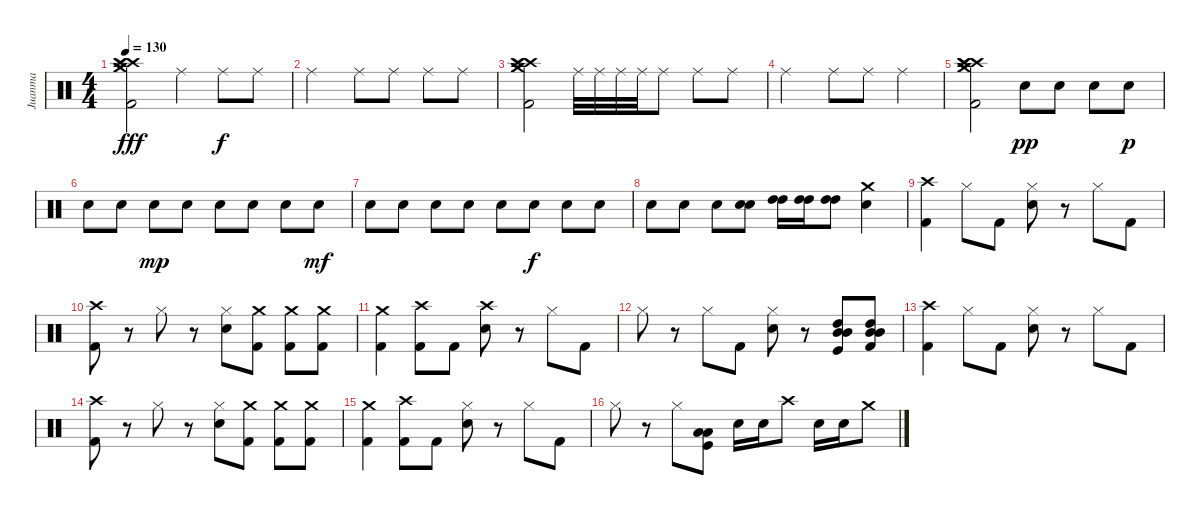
\track ("Juanma" "Juanma") {instrument percussion}
\staff {score}
\articulation defaults
\ts (4 4)
\tempo 130
\clef neutral
\ks c
("Crash high (hit)" "Crash medium (hit)" "Crash high (hit)" "Splash (hit)" "Crash medium (hit)" "Kick (hit) 2").2{dy fff} "Ride (middle)".4 "Ride (middle)".8{dy f} "Ride (middle)".8 |
"Ride (middle)".2 "Ride (middle)".8 "Ride (middle)".8 "Ride (middle)".8 "Ride (middle)".8 |
("Crash high (hit)" "Crash medium (hit)" "Crash medium (hit)" "Crash high (hit)" "Splash (hit)" "Kick (hit) 2").2 "Ride (middle)".32 "Ride (middle)".32 "Ride (middle)".32 "Ride (middle)".32 "Ride (middle)".8 "Ride (middle)".8 "Ride (middle)".8 |
"Ride (middle)".2 "Ride (middle)".8 "Ride (middle)".8 "Ride (middle)".4 |
("Crash high (hit)" "Crash medium (hit)" "Crash high (hit)" "Crash medium (hit)" "Crash high (hit)" "Kick (hit) 2").2 "Electric Snare (hit)".8{dy pp} "Electric Snare (hit)".8 "Electric Snare (hit)".8 "Electric Snare (hit)".8{dy p} |
"Electric Snare (hit)".8 "Electric Snare (hit)".8 "Electric Snare (hit)".8{dy mp} "Electric Snare (hit)".8 "Electric Snare (hit)".8 "Electric Snare (hit)".8 "Electric Snare (hit)".8 "Electric Snare (hit)".8{dy mf} |
"Electric Snare (hit)".8 "Electric Snare (hit)".8 "Electric Snare (hit)".8 "Electric Snare (hit)".8 "Electric Snare (hit)".8 "Electric Snare (hit)".8{dy f} "Electric Snare (hit)".8 "Electric Snare (hit)".8 |
"Electric Snare (hit)".8 "Electric Snare (hit)".8 "Electric Snare (hit)".8 ("Electric Snare (hit)" "Electric Snare (hit)").8 ("High Tom (hit)" "High Tom (hit)").16 ("High Tom (hit)" "High Tom (hit)").16 ("High Tom (hit)" "High Tom (hit)").8 ("Crash medium (hit)" "Electric Snare (hit)").4 |
("Crash high (hit)" "Kick (hit) 2").4 "Hi-Hat (closed)".8 "Kick (hit) 2".8 ("Hi-Hat (closed)" "Electric Snare (hit)").8 r.8 "Hi-Hat (closed)".8 "Kick (hit) 2".8 |
("Crash high (hit)" "Kick (hit) 2").8 r.8 "Hi-Hat (closed)".8 r.8 ("Hi-Hat (closed)" "Electric Snare (hit)").8 ("Crash medium (hit)" "Kick (hit) 2").8 ("Crash medium (hit)" "Kick (hit) 2").8 ("Crash medium (hit)" "Kick (hit) 2").8 |
("Crash medium (hit)" "Kick (hit) 2").4 ("Crash high (hit)" "Kick (hit) 2").8 "Kick (hit) 2".8 ("Crash high (hit)" "Electric Snare (hit)").8 r.8 "Hi-Hat (closed)".8 "Kick (hit) 2".8 |
"Hi-Hat (closed)".8 r.8 "Hi-Hat (closed)".8 "Kick (hit) 2".8 ("Hi-Hat (closed)" "Electric Snare (hit)").8 r.8 ("Kick (hit)" "Mid Tom (hit)" "Mid Tom (hit)" "High Tom (hit)").8 ("Kick (hit) 2" "Mid Tom (hit)" "Mid Tom (hit)" "High Tom (hit)").8 |
("Crash high (hit)" "Kick (hit) 2").4 "Hi-Hat (closed)".8 "Kick (hit) 2".8 ("Hi-Hat (closed)" "Electric Snare (hit)").8 r.8 "Hi-Hat (closed)".8 "Kick (hit) 2".8 |
("Crash high (hit)" "Kick (hit) 2").8 r.8 "Hi-Hat (closed)".8 r.8 ("Hi-Hat (closed)" "Electric Snare (hit)").8 ("Crash medium (hit)" "Kick (hit) 2").8 ("Crash medium (hit)" "Kick (hit) 2").8 ("Crash medium (hit)" "Kick (hit) 2").8 |
("Crash medium (hit)" "Kick (hit) 2").4 ("Crash high (hit)" "Kick (hit) 2").8 "Kick (hit) 2".8 ("Hi-Hat (closed)" "Electric Snare (hit)").8 r.8 "Hi-Hat (closed)".8 "Kick (hit) 2".8 |
"Hi-Hat (closed)".8 r.8 "Hi-Hat (closed)".8 ("Kick (hit)" "Low Tom (hit)" "Low Tom (hit)").8 "Electric Snare (hit)".16 "Electric Snare (hit)".16 "Crash high (hit)".8 "Electric Snare (hit)".16 "Electric Snare (hit)".16 "Crash medium (hit)".8
